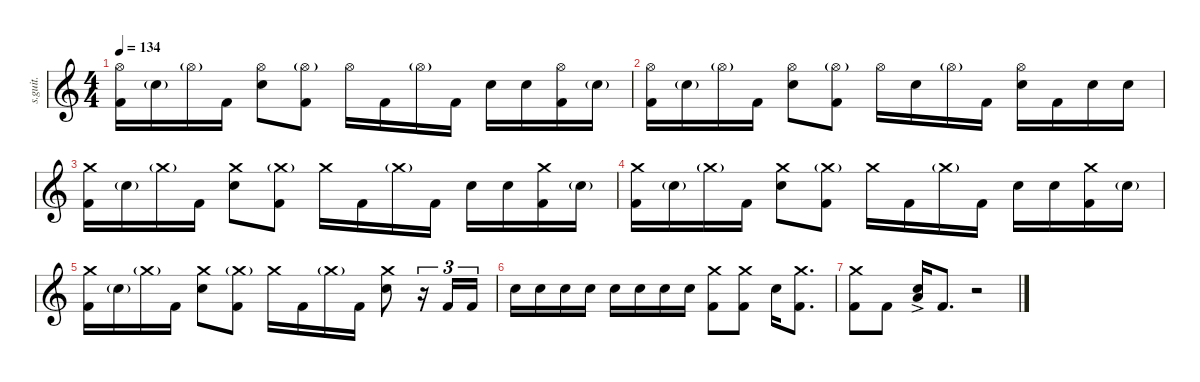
\defaultSystemsLayout 4
\hideDynamics
\bracketExtendMode nobrackets
\track ("Joey Jordison RIP" "s.guit.") {instrument percussion}
\staff {score}
\articulation defaults
\ts (4 4)
\tempo 134
\clef g2
\ks c
("Hi-Hat (open)" "Kick (hit) 2").16{dy fff} "Snare (hit) 2"{g}.16 "Hi-Hat (open)"{g}.16 "Kick (hit) 2".16 ("Hi-Hat (open)" "Snare (hit) 2").8 ("Hi-Hat (open)"{g} "Kick (hit) 2").8 "Hi-Hat (open)".16 "Kick (hit) 2".16 "Hi-Hat (open)"{g}.16 "Kick (hit) 2".16 "Snare (hit) 2".16 "Snare (hit) 2".16 ("Hi-Hat (open)" "Kick (hit) 2").16 "Snare (hit) 2"{g}.16 |
("Hi-Hat (open)" "Kick (hit) 2").16 "Snare (hit) 2"{g}.16 "Hi-Hat (open)"{g}.16 "Kick (hit) 2".16 ("Hi-Hat (open)" "Snare (hit) 2").8 ("Hi-Hat (open)"{g} "Kick (hit) 2").8 "Hi-Hat (open)".16 "Snare (hit) 2".16 "Hi-Hat (open)"{g}.16 "Kick (hit) 2".16 ("Hi-Hat (open)" "Snare (hit) 2").16 "Kick (hit) 2".16 "Snare (hit) 2".16 "Snare (hit) 2".16 |
("Crash medium (hit)" "Kick (hit) 2").16 "Snare (hit) 2"{g}.16 "Crash medium (hit)"{g}.16 "Kick (hit) 2".16 ("Crash medium (hit)" "Snare (hit) 2").8 ("Crash medium (hit)"{g} "Kick (hit) 2").8 "Crash medium (hit)".16 "Kick (hit) 2".16 "Crash medium (hit)"{g}.16 "Kick (hit) 2".16 "Snare (hit) 2".16 "Snare (hit) 2".16 ("Kick (hit) 2" "Crash medium (hit)").16 "Snare (hit) 2"{g}.16 |
("Kick (hit) 2" "Crash medium (hit)").16 "Snare (hit) 2"{g}.16 "Crash medium (hit)"{g}.16 "Kick (hit) 2".16 ("Crash medium (hit)" "Snare (hit) 2").8 ("Crash medium (hit)"{g} "Kick (hit) 2").8 "Crash medium (hit)".16 "Kick (hit) 2".16 "Crash medium (hit)"{g}.16 "Kick (hit) 2".16 "Snare (hit) 2".16 "Snare (hit) 2".16 ("Kick (hit) 2" "Crash medium (hit)").16 "Snare (hit) 2"{g}.16 |
("Kick (hit) 2" "Crash medium (hit)").16 "Snare (hit) 2"{g}.16 "Crash medium (hit)"{g}.16 "Kick (hit) 2".16 ("Crash medium (hit)" "Snare (hit) 2").8 ("Crash medium (hit)"{g} "Kick (hit) 2").8 "Crash medium (hit)".16 "Kick (hit) 2".16 "Crash medium (hit)"{g}.16 "Kick (hit) 2".16 ("Crash medium (hit)" "Snare (hit) 2").8 r.16{tu (3 2)} "Kick (hit) 2".16{tu (3 2)} "Kick (hit) 2".16{tu (3 2)} |
"Snare (hit) 2".16 "Snare (hit) 2".16 "Snare (hit) 2".16 "Snare (hit) 2".16 "Snare (hit) 2".16 "Snare (hit) 2".16 "Snare (hit) 2".16 "Snare (hit) 2".16 ("Crash medium (hit)" "Kick (hit) 2").8 ("Crash medium (hit)" "Kick (hit) 2").8 "Snare (hit) 2".16 ("Crash medium (hit)" "Kick (hit) 2").8{d} |
("Crash medium (hit)" "Kick (hit) 2").8 "Kick (hit) 2".8 ("Low Floor Tom (hit)"{ac} "Snare (hit) 2"{ac}).16 "Kick (hit) 2".8{d} r.2
